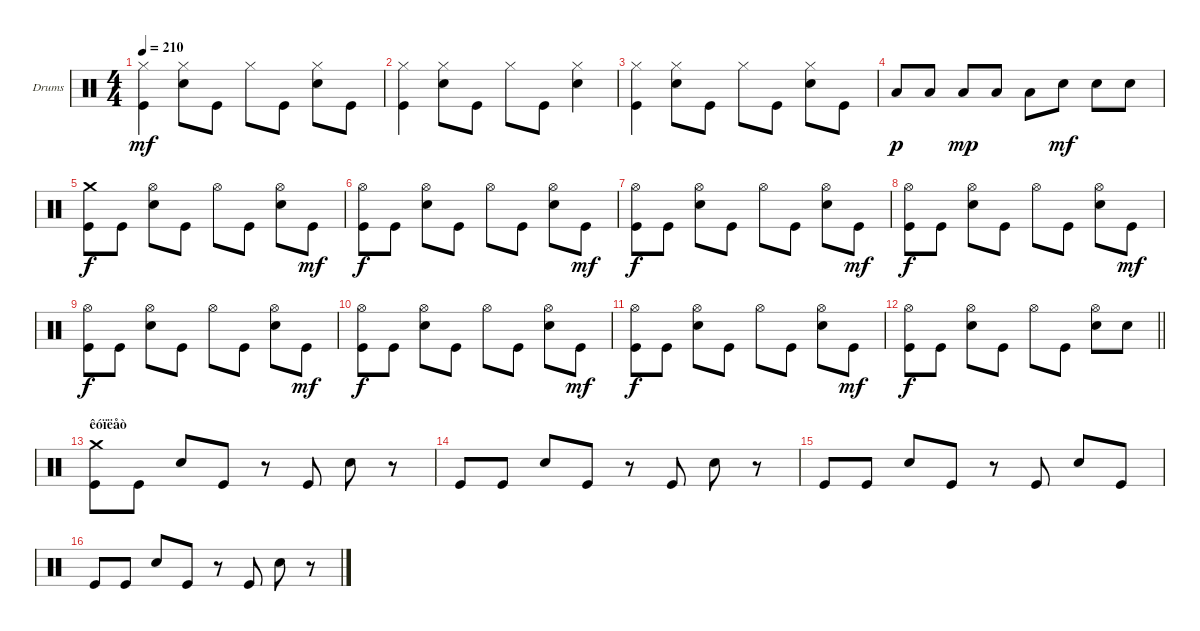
\bracketExtendMode groupsimilarinstruments
\firstSystemTrackNameOrientation horizontal
\otherSystemsTrackNameOrientation horizontal
\track ("Drumkit" "Drums") {instrument percussion}
\staff {score}
\articulation defaults
\ts (4 4)
\beaming (8 2 2 2 2)
\tempo 210
\clef neutral
\ks c
("Hi-Hat (closed)" "Kick (hit)").4{dy mf} ("Hi-Hat (closed)" "Snare (hit) 2").8 "Kick (hit)".8 "Hi-Hat (closed)".8 "Kick (hit)".8 ("Hi-Hat (closed)" "Snare (hit) 2").8 "Kick (hit)".8 |
("Hi-Hat (closed)" "Kick (hit)").4 ("Hi-Hat (closed)" "Snare (hit) 2").8 "Kick (hit)".8 "Hi-Hat (closed)".8 "Kick (hit)".8 ("Hi-Hat (closed)" "Snare (hit) 2").4 |
("Hi-Hat (closed)" "Kick (hit)").4 ("Hi-Hat (closed)" "Snare (hit) 2").8 "Kick (hit)".8 "Hi-Hat (closed)".8 "Kick (hit)".8 ("Hi-Hat (closed)" "Snare (hit) 2").8 "Kick (hit)".8 |
"Low Tom (hit)".8{dy p} "Low Tom (hit)".8 "Low Tom (hit)".8{dy mp} "Low Tom (hit)".8 "Low Tom (hit)".8 "Snare (hit) 2".8{dy mf} "Snare (hit) 2".8 "Snare (hit) 2".8 |
("Crash medium (hit)" "Kick (hit)").8{dy f} "Kick (hit)".8 ("Hi-Hat (open)" "Snare (hit) 2").8 "Kick (hit)".8 "Hi-Hat (open)".8 "Kick (hit)".8 ("Hi-Hat (open)" "Snare (hit) 2").8 "Kick (hit)".8{dy mf} |
("Hi-Hat (open)" "Kick (hit)").8{dy f} "Kick (hit)".8 ("Hi-Hat (open)" "Snare (hit) 2").8 "Kick (hit)".8 "Hi-Hat (open)".8 "Kick (hit)".8 ("Hi-Hat (open)" "Snare (hit) 2").8 "Kick (hit)".8{dy mf} |
("Hi-Hat (open)" "Kick (hit)").8{dy f} "Kick (hit)".8 ("Hi-Hat (open)" "Snare (hit) 2").8 "Kick (hit)".8 "Hi-Hat (open)".8 "Kick (hit)".8 ("Hi-Hat (open)" "Snare (hit) 2").8 "Kick (hit)".8{dy mf} |
("Hi-Hat (open)" "Kick (hit)").8{dy f} "Kick (hit)".8 ("Hi-Hat (open)" "Snare (hit) 2").8 "Kick (hit)".8 "Hi-Hat (open)".8 "Kick (hit)".8 ("Hi-Hat (open)" "Snare (hit) 2").8 "Kick (hit)".8{dy mf} |
("Hi-Hat (open)" "Kick (hit)").8{dy f} "Kick (hit)".8 ("Hi-Hat (open)" "Snare (hit) 2").8 "Kick (hit)".8 "Hi-Hat (open)".8 "Kick (hit)".8 ("Hi-Hat (open)" "Snare (hit) 2").8 "Kick (hit)".8{dy mf} |
("Hi-Hat (open)" "Kick (hit)").8{dy f} "Kick (hit)".8 ("Hi-Hat (open)" "Snare (hit) 2").8 "Kick (hit)".8 "Hi-Hat (open)".8 "Kick (hit)".8 ("Hi-Hat (open)" "Snare (hit) 2").8 "Kick (hit)".8{dy mf} |
("Hi-Hat (open)" "Kick (hit)").8{dy f} "Kick (hit)".8 ("Hi-Hat (open)" "Snare (hit) 2").8 "Kick (hit)".8 "Hi-Hat (open)".8 "Kick (hit)".8 ("Hi-Hat (open)" "Snare (hit) 2").8 "Kick (hit)".8{dy mf} |
\barLineRight lightlight
("Hi-Hat (open)" "Kick (hit)").8{dy f} "Kick (hit)".8 ("Hi-Hat (open)" "Snare (hit) 2").8 "Kick (hit)".8 "Hi-Hat (open)".8 "Kick (hit)".8 ("Hi-Hat (open)" "Snare (hit) 2").8 "Snare (hit) 2".8 |
\section ("" "êóïëåò")
("Crash medium (hit)" "Kick (hit)").8 "Kick (hit)".8 "Snare (hit) 2".8 "Kick (hit)".8 r.8 "Kick (hit)".8 "Snare (hit) 2".8 r.8 |
"Kick (hit)".8 "Kick (hit)".8 "Snare (hit) 2".8 "Kick (hit)".8 r.8 "Kick (hit)".8 "Snare (hit) 2".8 r.8 |
"Kick (hit)".8 "Kick (hit)".8 "Snare (hit) 2".8 "Kick (hit)".8 r.8 "Kick (hit)".8 "Snare (hit) 2".8 "Kick (hit)".8 |
"Kick (hit)".8 "Kick (hit)".8 "Snare (hit) 2".8 "Kick (hit)".8 r.8 "Kick (hit)".8 "Snare (hit) 2".8 r.8
